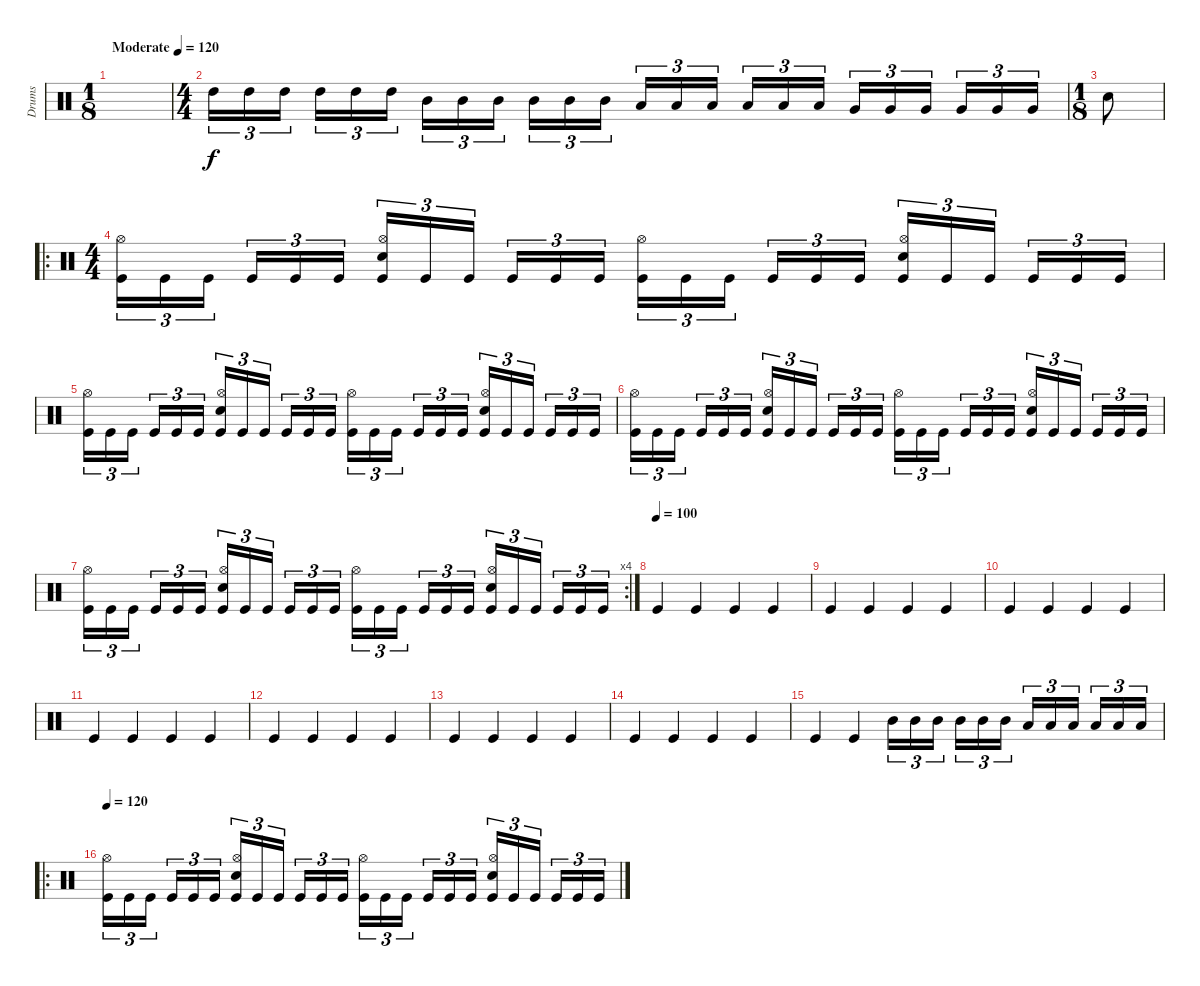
\track ("Drums" "Drums") {instrument percussion}
\staff {score}
\articulation defaults
\ts (1 8)
\tempo (120 "Moderate")
\clef neutral
\ks c
|
\ts (4 4)
"High Tom (hit)".16{tu (3 2)} "High Tom (hit)".16{tu (3 2)} "High Tom (hit)".16{tu (3 2) beam splitsecondary} "High Tom (hit)".16{tu (3 2)} "High Tom (hit)".16{tu (3 2)} "High Tom (hit)".16{tu (3 2)} "Mid Tom (hit)".16{tu (3 2)} "Mid Tom (hit)".16{tu (3 2)} "Mid Tom (hit)".16{tu (3 2) beam splitsecondary} "Mid Tom (hit)".16{tu (3 2)} "Mid Tom (hit)".16{tu (3 2)} "Mid Tom (hit)".16{tu (3 2)} "Low Tom (hit)".16{tu (3 2)} "Low Tom (hit)".16{tu (3 2)} "Low Tom (hit)".16{tu (3 2) beam splitsecondary} "Low Tom (hit)".16{tu (3 2)} "Low Tom (hit)".16{tu (3 2)} "Low Tom (hit)".16{tu (3 2)} "Very Low Tom (hit)".16{tu (3 2)} "Very Low Tom (hit)".16{tu (3 2)} "Very Low Tom (hit)".16{tu (3 2) beam splitsecondary} "Very Low Tom (hit)".16{tu (3 2)} "Very Low Tom (hit)".16{tu (3 2)} "Very Low Tom (hit)".16{tu (3 2)} |
\ts (1 8)
"Snare (hit) 2".8 |
\ro
\ts (4 4)
("Hi-Hat (open)" "Kick (hit)").16{tu (3 2)} "Kick (hit)".16{tu (3 2)} "Kick (hit)".16{tu (3 2) beam splitsecondary} "Kick (hit)".16{tu (3 2)} "Kick (hit)".16{tu (3 2)} "Kick (hit)".16{tu (3 2)} ("Snare (hit) 2" "Hi-Hat (open)" "Kick (hit)").16{tu (3 2)} "Kick (hit)".16{tu (3 2)} "Kick (hit)".16{tu (3 2) beam splitsecondary} "Kick (hit)".16{tu (3 2)} "Kick (hit)".16{tu (3 2)} "Kick (hit)".16{tu (3 2)} ("Hi-Hat (open)" "Kick (hit)").16{tu (3 2)} "Kick (hit)".16{tu (3 2)} "Kick (hit)".16{tu (3 2) beam splitsecondary} "Kick (hit)".16{tu (3 2)} "Kick (hit)".16{tu (3 2)} "Kick (hit)".16{tu (3 2)} ("Snare (hit) 2" "Hi-Hat (open)" "Kick (hit)").16{tu (3 2)} "Kick (hit)".16{tu (3 2)} "Kick (hit)".16{tu (3 2) beam splitsecondary} "Kick (hit)".16{tu (3 2)} "Kick (hit)".16{tu (3 2)} "Kick (hit)".16{tu (3 2)} |
("Hi-Hat (open)" "Kick (hit)").16{tu (3 2)} "Kick (hit)".16{tu (3 2)} "Kick (hit)".16{tu (3 2) beam splitsecondary} "Kick (hit)".16{tu (3 2)} "Kick (hit)".16{tu (3 2)} "Kick (hit)".16{tu (3 2)} ("Snare (hit) 2" "Hi-Hat (open)" "Kick (hit)").16{tu (3 2)} "Kick (hit)".16{tu (3 2)} "Kick (hit)".16{tu (3 2) beam splitsecondary} "Kick (hit)".16{tu (3 2)} "Kick (hit)".16{tu (3 2)} "Kick (hit)".16{tu (3 2)} ("Hi-Hat (open)" "Kick (hit)").16{tu (3 2)} "Kick (hit)".16{tu (3 2)} "Kick (hit)".16{tu (3 2) beam splitsecondary} "Kick (hit)".16{tu (3 2)} "Kick (hit)".16{tu (3 2)} "Kick (hit)".16{tu (3 2)} ("Snare (hit) 2" "Hi-Hat (open)" "Kick (hit)").16{tu (3 2)} "Kick (hit)".16{tu (3 2)} "Kick (hit)".16{tu (3 2) beam splitsecondary} "Kick (hit)".16{tu (3 2)} "Kick (hit)".16{tu (3 2)} "Kick (hit)".16{tu (3 2)} |
("Hi-Hat (open)" "Kick (hit)").16{tu (3 2)} "Kick (hit)".16{tu (3 2)} "Kick (hit)".16{tu (3 2) beam splitsecondary} "Kick (hit)".16{tu (3 2)} "Kick (hit)".16{tu (3 2)} "Kick (hit)".16{tu (3 2)} ("Snare (hit) 2" "Hi-Hat (open)" "Kick (hit)").16{tu (3 2)} "Kick (hit)".16{tu (3 2)} "Kick (hit)".16{tu (3 2) beam splitsecondary} "Kick (hit)".16{tu (3 2)} "Kick (hit)".16{tu (3 2)} "Kick (hit)".16{tu (3 2)} ("Hi-Hat (open)" "Kick (hit)").16{tu (3 2)} "Kick (hit)".16{tu (3 2)} "Kick (hit)".16{tu (3 2) beam splitsecondary} "Kick (hit)".16{tu (3 2)} "Kick (hit)".16{tu (3 2)} "Kick (hit)".16{tu (3 2)} ("Snare (hit) 2" "Hi-Hat (open)" "Kick (hit)").16{tu (3 2)} "Kick (hit)".16{tu (3 2)} "Kick (hit)".16{tu (3 2) beam splitsecondary} "Kick (hit)".16{tu (3 2)} "Kick (hit)".16{tu (3 2)} "Kick (hit)".16{tu (3 2)} |
\rc 4
("Hi-Hat (open)" "Kick (hit)").16{tu (3 2)} "Kick (hit)".16{tu (3 2)} "Kick (hit)".16{tu (3 2) beam splitsecondary} "Kick (hit)".16{tu (3 2)} "Kick (hit)".16{tu (3 2)} "Kick (hit)".16{tu (3 2)} ("Snare (hit) 2" "Hi-Hat (open)" "Kick (hit)").16{tu (3 2)} "Kick (hit)".16{tu (3 2)} "Kick (hit)".16{tu (3 2) beam splitsecondary} "Kick (hit)".16{tu (3 2)} "Kick (hit)".16{tu (3 2)} "Kick (hit)".16{tu (3 2)} ("Hi-Hat (open)" "Kick (hit)").16{tu (3 2)} "Kick (hit)".16{tu (3 2)} "Kick (hit)".16{tu (3 2) beam splitsecondary} "Kick (hit)".16{tu (3 2)} "Kick (hit)".16{tu (3 2)} "Kick (hit)".16{tu (3 2)} ("Snare (hit) 2" "Hi-Hat (open)" "Kick (hit)").16{tu (3 2)} "Kick (hit)".16{tu (3 2)} "Kick (hit)".16{tu (3 2) beam splitsecondary} "Kick (hit)".16{tu (3 2)} "Kick (hit)".16{tu (3 2)} "Kick (hit)".16{tu (3 2)} |
\tempo (100)
"Kick (hit)".4 "Kick (hit)".4 "Kick (hit)".4 "Kick (hit)".4 |
"Kick (hit)".4 "Kick (hit)".4 "Kick (hit)".4 "Kick (hit)".4 |
"Kick (hit)".4 "Kick (hit)".4 "Kick (hit)".4 "Kick (hit)".4 |
"Kick (hit)".4 "Kick (hit)".4 "Kick (hit)".4 "Kick (hit)".4 |
"Kick (hit)".4 "Kick (hit)".4 "Kick (hit)".4 "Kick (hit)".4 |
"Kick (hit)".4 "Kick (hit)".4 "Kick (hit)".4 "Kick (hit)".4 |
"Kick (hit)".4 "Kick (hit)".4 "Kick (hit)".4 "Kick (hit)".4 |
"Kick (hit)".4 "Kick (hit)".4 "Mid Tom (hit)".16{tu (3 2)} "Mid Tom (hit)".16{tu (3 2)} "Mid Tom (hit)".16{tu (3 2) beam splitsecondary} "Mid Tom (hit)".16{tu (3 2)} "Mid Tom (hit)".16{tu (3 2)} "Mid Tom (hit)".16{tu (3 2)} "Low Tom (hit)".16{tu (3 2)} "Low Tom (hit)".16{tu (3 2)} "Low Tom (hit)".16{tu (3 2) beam splitsecondary} "Low Tom (hit)".16{tu (3 2)} "Low Tom (hit)".16{tu (3 2)} "Low Tom (hit)".16{tu (3 2)} |
\ro
\tempo 120
("Hi-Hat (open)" "Kick (hit)").16{tu (3 2)} "Kick (hit)".16{tu (3 2)} "Kick (hit)".16{tu (3 2) beam splitsecondary} "Kick (hit)".16{tu (3 2)} "Kick (hit)".16{tu (3 2)} "Kick (hit)".16{tu (3 2)} ("Snare (hit) 2" "Hi-Hat (open)" "Kick (hit)").16{tu (3 2)} "Kick (hit)".16{tu (3 2)} "Kick (hit)".16{tu (3 2) beam splitsecondary} "Kick (hit)".16{tu (3 2)} "Kick (hit)".16{tu (3 2)} "Kick (hit)".16{tu (3 2)} ("Hi-Hat (open)" "Kick (hit)").16{tu (3 2)} "Kick (hit)".16{tu (3 2)} "Kick (hit)".16{tu (3 2) beam splitsecondary} "Kick (hit)".16{tu (3 2)} "Kick (hit)".16{tu (3 2)} "Kick (hit)".16{tu (3 2)} ("Snare (hit) 2" "Hi-Hat (open)" "Kick (hit)").16{tu (3 2)} "Kick (hit)".16{tu (3 2)} "Kick (hit)".16{tu (3 2) beam splitsecondary} "Kick (hit)".16{tu (3 2)} "Kick (hit)".16{tu (3 2)} "Kick (hit)".16{tu (3 2)}
